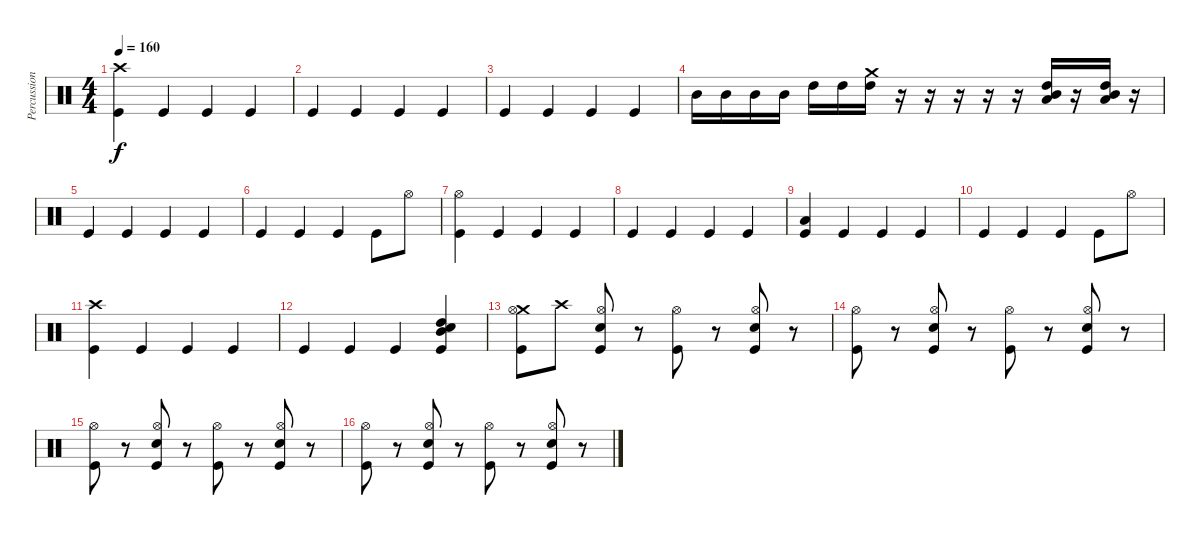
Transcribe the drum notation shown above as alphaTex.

\track ("Percussion" "Percussion") {instrument percussion}
\staff {score}
\articulation defaults
\ts (4 4)
\tempo 160
\clef neutral
\ks c
("Crash high (hit)" "Kick (hit)").4{dy f} "Kick (hit)".4 "Kick (hit)".4 "Kick (hit)".4 |
"Kick (hit)".4 "Kick (hit)".4 "Kick (hit)".4 "Kick (hit)".4 |
"Kick (hit)".4 "Kick (hit)".4 "Kick (hit)".4 "Kick (hit)".4 |
"Mid Tom (hit)".16 "Mid Tom (hit)".16 "Mid Tom (hit)".16 "Mid Tom (hit)".16 "High Tom (hit)".16 "High Tom (hit)".16 ("Crash medium (hit)" "High Tom (hit)").16 r.16 r.16 r.16 r.16 r.16 ("High Tom (hit)" "Mid Tom (hit)" "Low Tom (hit)").16 r.16 ("High Tom (hit)" "Mid Tom (hit)" "Low Tom (hit)").16 r.16 |
"Kick (hit)".4 "Kick (hit)".4 "Kick (hit)".4 "Kick (hit)".4 |
"Kick (hit)".4 "Kick (hit)".4 "Kick (hit)".4 "Kick (hit)".8 "Hi-Hat (open)".8 |
("Hi-Hat (open)" "Kick (hit)").4 "Kick (hit)".4 "Kick (hit)".4 "Kick (hit)".4 |
"Kick (hit)".4 "Kick (hit)".4 "Kick (hit)".4 "Kick (hit)".4 |
("Low Tom (hit)" "Kick (hit)").4 "Kick (hit)".4 "Kick (hit)".4 "Kick (hit)".4 |
"Kick (hit)".4 "Kick (hit)".4 "Kick (hit)".4 "Kick (hit)".8 "Hi-Hat (open)".8 |
("Crash high (hit)" "Kick (hit)").4 "Kick (hit)".4 "Kick (hit)".4 "Kick (hit)".4 |
"Kick (hit)".4 "Kick (hit)".4 "Kick (hit)".4 ("High Tom (hit)" "Mid Tom (hit)" "Snare (hit) 2" "Kick (hit)").4 |
("Crash medium (hit)" "Hi-Hat (open)" "Kick (hit)").8 "Crash high (hit)".8 ("Snare (hit) 2" "Hi-Hat (open)" "Kick (hit)").8 r.8 ("Hi-Hat (open)" "Kick (hit)").8 r.8 ("Snare (hit) 2" "Hi-Hat (open)" "Kick (hit)").8 r.8 |
("Hi-Hat (open)" "Kick (hit)").8 r.8 ("Snare (hit) 2" "Hi-Hat (open)" "Kick (hit)").8 r.8 ("Hi-Hat (open)" "Kick (hit)").8 r.8 ("Snare (hit) 2" "Hi-Hat (open)" "Kick (hit)").8 r.8 |
("Hi-Hat (open)" "Kick (hit)").8 r.8 ("Snare (hit) 2" "Hi-Hat (open)" "Kick (hit)").8 r.8 ("Hi-Hat (open)" "Kick (hit)").8 r.8 ("Snare (hit) 2" "Hi-Hat (open)" "Kick (hit)").8 r.8 |
("Hi-Hat (open)" "Kick (hit)").8 r.8 ("Snare (hit) 2" "Hi-Hat (open)" "Kick (hit)").8 r.8 ("Hi-Hat (open)" "Kick (hit)").8 r.8 ("Snare (hit) 2" "Hi-Hat (open)" "Kick (hit)").8 r.8
